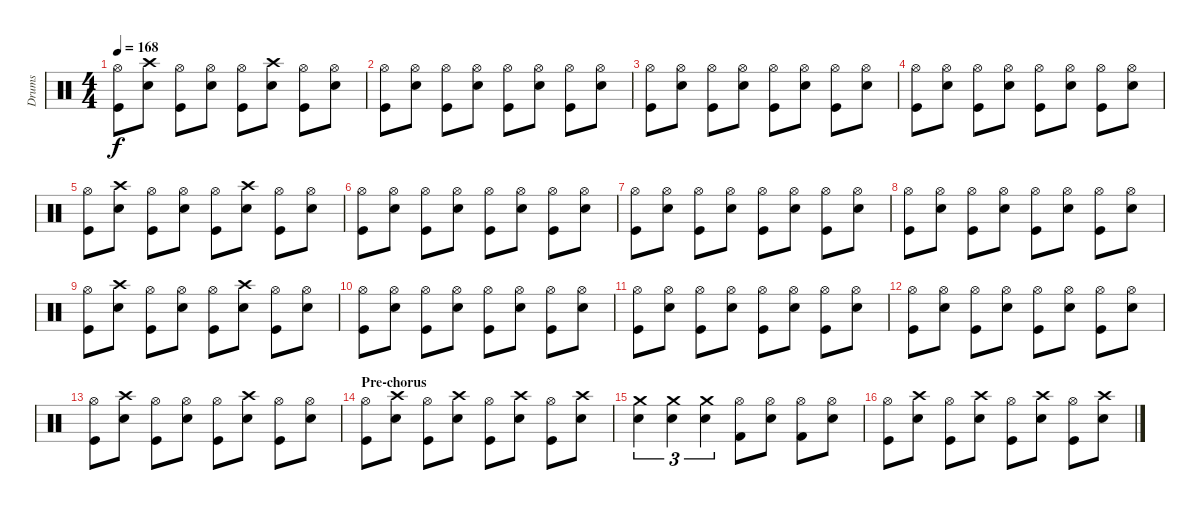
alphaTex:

\track ("Drums" "Drums") {instrument percussion}
\staff {score}
\articulation defaults
\ts (4 4)
\tempo 168
\clef neutral
\ks c
("Hi-Hat (open)" "Kick (hit)").8{dy f} ("Crash high (hit)" "Snare (hit) 2").8 ("Hi-Hat (open)" "Kick (hit)").8 ("Hi-Hat (open)" "Snare (hit) 2").8 ("Hi-Hat (open)" "Kick (hit)").8 ("Crash high (hit)" "Snare (hit) 2").8 ("Hi-Hat (open)" "Kick (hit)").8 ("Hi-Hat (open)" "Snare (hit) 2").8 |
("Hi-Hat (open)" "Kick (hit)").8 ("Hi-Hat (open)" "Snare (hit) 2").8 ("Hi-Hat (open)" "Kick (hit)").8 ("Hi-Hat (open)" "Snare (hit) 2").8 ("Hi-Hat (open)" "Kick (hit)").8 ("Hi-Hat (open)" "Snare (hit) 2").8 ("Hi-Hat (open)" "Kick (hit)").8 ("Hi-Hat (open)" "Snare (hit) 2").8 |
("Hi-Hat (open)" "Kick (hit)").8 ("Hi-Hat (open)" "Snare (hit) 2").8 ("Hi-Hat (open)" "Kick (hit)").8 ("Hi-Hat (open)" "Snare (hit) 2").8 ("Hi-Hat (open)" "Kick (hit)").8 ("Hi-Hat (open)" "Snare (hit) 2").8 ("Hi-Hat (open)" "Kick (hit)").8 ("Hi-Hat (open)" "Snare (hit) 2").8 |
("Hi-Hat (open)" "Kick (hit)").8 ("Hi-Hat (open)" "Snare (hit) 2").8 ("Hi-Hat (open)" "Kick (hit)").8 ("Hi-Hat (open)" "Snare (hit) 2").8 ("Hi-Hat (open)" "Kick (hit)").8 ("Hi-Hat (open)" "Snare (hit) 2").8 ("Hi-Hat (open)" "Kick (hit)").8 ("Hi-Hat (open)" "Snare (hit) 2").8 |
("Hi-Hat (open)" "Kick (hit)").8 ("Crash high (hit)" "Snare (hit) 2").8 ("Hi-Hat (open)" "Kick (hit)").8 ("Hi-Hat (open)" "Snare (hit) 2").8 ("Hi-Hat (open)" "Kick (hit)").8 ("Crash high (hit)" "Snare (hit) 2").8 ("Hi-Hat (open)" "Kick (hit)").8 ("Hi-Hat (open)" "Snare (hit) 2").8 |
("Hi-Hat (open)" "Kick (hit)").8 ("Hi-Hat (open)" "Snare (hit) 2").8 ("Hi-Hat (open)" "Kick (hit)").8 ("Hi-Hat (open)" "Snare (hit) 2").8 ("Hi-Hat (open)" "Kick (hit)").8 ("Hi-Hat (open)" "Snare (hit) 2").8 ("Hi-Hat (open)" "Kick (hit)").8 ("Hi-Hat (open)" "Snare (hit) 2").8 |
("Hi-Hat (open)" "Kick (hit)").8 ("Hi-Hat (open)" "Snare (hit) 2").8 ("Hi-Hat (open)" "Kick (hit)").8 ("Hi-Hat (open)" "Snare (hit) 2").8 ("Hi-Hat (open)" "Kick (hit)").8 ("Hi-Hat (open)" "Snare (hit) 2").8 ("Hi-Hat (open)" "Kick (hit)").8 ("Hi-Hat (open)" "Snare (hit) 2").8 |
("Hi-Hat (open)" "Kick (hit)").8 ("Hi-Hat (open)" "Snare (hit) 2").8 ("Hi-Hat (open)" "Kick (hit)").8 ("Hi-Hat (open)" "Snare (hit) 2").8 ("Hi-Hat (open)" "Kick (hit)").8 ("Hi-Hat (open)" "Snare (hit) 2").8 ("Hi-Hat (open)" "Kick (hit)").8 ("Hi-Hat (open)" "Snare (hit) 2").8 |
("Hi-Hat (open)" "Kick (hit)").8 ("Crash high (hit)" "Snare (hit) 2").8 ("Hi-Hat (open)" "Kick (hit)").8 ("Hi-Hat (open)" "Snare (hit) 2").8 ("Hi-Hat (open)" "Kick (hit)").8 ("Crash high (hit)" "Snare (hit) 2").8 ("Hi-Hat (open)" "Kick (hit)").8 ("Hi-Hat (open)" "Snare (hit) 2").8 |
("Hi-Hat (open)" "Kick (hit)").8 ("Hi-Hat (open)" "Snare (hit) 2").8 ("Hi-Hat (open)" "Kick (hit)").8 ("Hi-Hat (open)" "Snare (hit) 2").8 ("Hi-Hat (open)" "Kick (hit)").8 ("Hi-Hat (open)" "Snare (hit) 2").8 ("Hi-Hat (open)" "Kick (hit)").8 ("Hi-Hat (open)" "Snare (hit) 2").8 |
("Hi-Hat (open)" "Kick (hit)").8 ("Hi-Hat (open)" "Snare (hit) 2").8 ("Hi-Hat (open)" "Kick (hit)").8 ("Hi-Hat (open)" "Snare (hit) 2").8 ("Hi-Hat (open)" "Kick (hit)").8 ("Hi-Hat (open)" "Snare (hit) 2").8 ("Hi-Hat (open)" "Kick (hit)").8 ("Hi-Hat (open)" "Snare (hit) 2").8 |
("Hi-Hat (open)" "Kick (hit)").8 ("Hi-Hat (open)" "Snare (hit) 2").8 ("Hi-Hat (open)" "Kick (hit)").8 ("Hi-Hat (open)" "Snare (hit) 2").8 ("Hi-Hat (open)" "Kick (hit)").8 ("Hi-Hat (open)" "Snare (hit) 2").8 ("Hi-Hat (open)" "Kick (hit)").8 ("Hi-Hat (open)" "Snare (hit) 2").8 |
("Hi-Hat (open)" "Kick (hit)").8 ("Crash high (hit)" "Snare (hit) 2").8 ("Hi-Hat (open)" "Kick (hit)").8 ("Hi-Hat (open)" "Snare (hit) 2").8 ("Hi-Hat (open)" "Kick (hit)").8 ("Crash high (hit)" "Snare (hit) 2").8 ("Hi-Hat (open)" "Kick (hit)").8 ("Hi-Hat (open)" "Snare (hit) 2").8 |
\section ("" "Pre-chorus")
("Hi-Hat (open)" "Kick (hit)").8 ("Crash high (hit)" "Snare (hit) 2").8 ("Hi-Hat (open)" "Kick (hit)").8 ("Crash high (hit)" "Snare (hit) 2").8 ("Hi-Hat (open)" "Kick (hit)").8 ("Crash high (hit)" "Snare (hit) 2").8 ("Hi-Hat (open)" "Kick (hit)").8 ("Crash high (hit)" "Snare (hit) 2").8 |
("Crash medium (hit)" "Snare (hit) 2").4{tu (3 2)} ("Crash medium (hit)" "Snare (hit) 2").4{tu (3 2)} ("Crash medium (hit)" "Snare (hit) 2").4{tu (3 2)} ("Hi-Hat (open)" "Kick (hit) 2").8 ("Hi-Hat (open)" "Snare (hit) 2").8 ("Hi-Hat (open)" "Kick (hit) 2").8 ("Hi-Hat (open)" "Snare (hit) 2").8 |
("Hi-Hat (open)" "Kick (hit)").8 ("Crash high (hit)" "Snare (hit) 2").8 ("Hi-Hat (open)" "Kick (hit)").8 ("Crash high (hit)" "Snare (hit) 2").8 ("Hi-Hat (open)" "Kick (hit)").8 ("Crash high (hit)" "Snare (hit) 2").8 ("Hi-Hat (open)" "Kick (hit)").8 ("Crash high (hit)" "Snare (hit) 2").8
